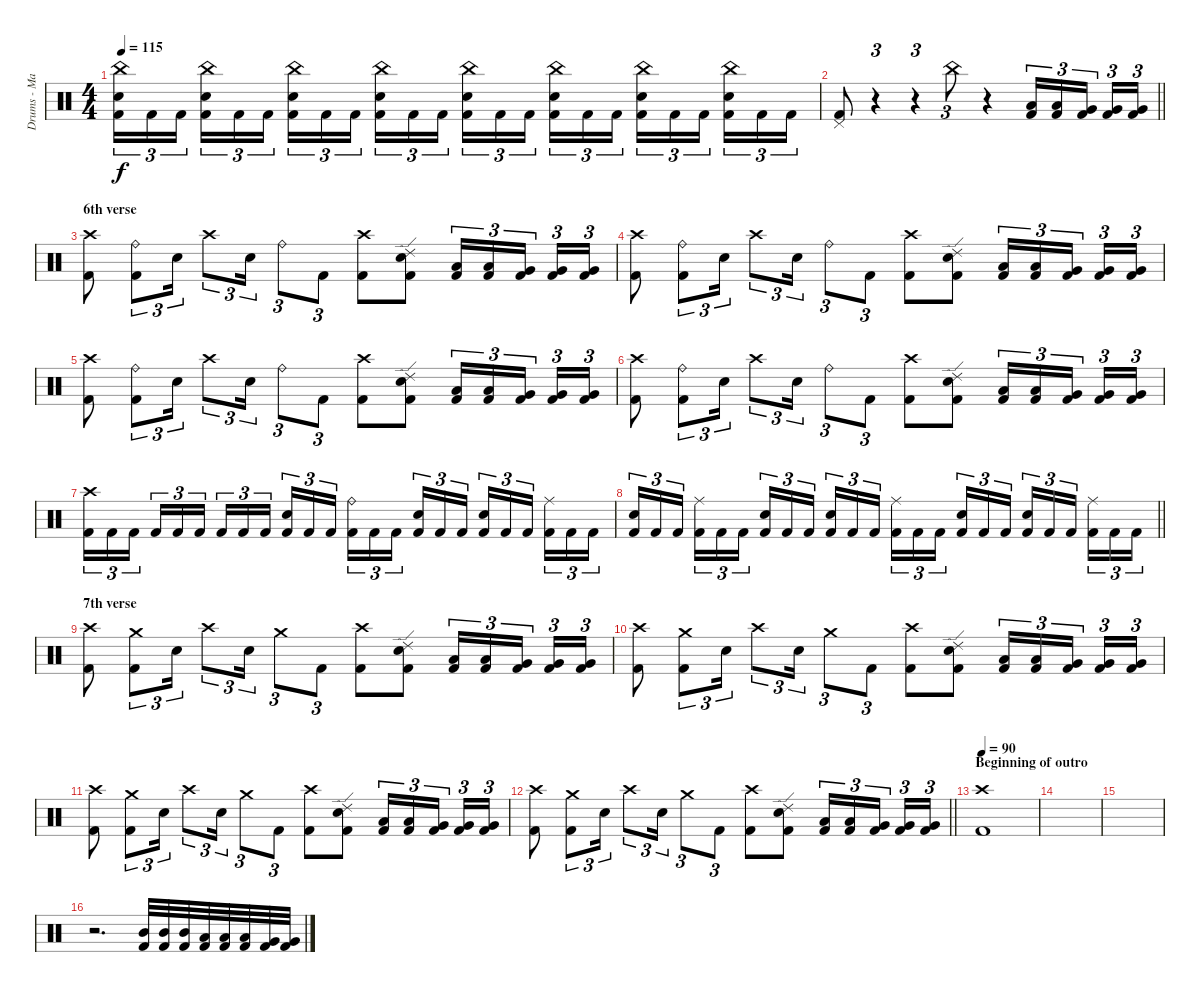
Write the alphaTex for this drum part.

\track ("Drums - Mario Duplantier" "Drums - Ma") {instrument percussion}
\staff {score}
\articulation defaults
\ts (4 4)
\tempo 115
\clef neutral
\ks c
("China (hit)" "Electric Snare (hit)" "Kick (hit) 2").16{tu (3 2) dy f} "Kick (hit) 2".16{tu (3 2)} "Kick (hit) 2".16{tu (3 2) beam splitsecondary} ("China (hit)" "Electric Snare (hit)" "Kick (hit) 2").16{tu (3 2)} "Kick (hit) 2".16{tu (3 2)} "Kick (hit) 2".16{tu (3 2)} ("China (hit)" "Electric Snare (hit)" "Kick (hit) 2").16{tu (3 2)} "Kick (hit) 2".16{tu (3 2)} "Kick (hit) 2".16{tu (3 2) beam splitsecondary} ("China (hit)" "Electric Snare (hit)" "Kick (hit) 2").16{tu (3 2)} "Kick (hit) 2".16{tu (3 2)} "Kick (hit) 2".16{tu (3 2)} ("China (hit)" "Electric Snare (hit)" "Kick (hit) 2").16{tu (3 2)} "Kick (hit) 2".16{tu (3 2)} "Kick (hit) 2".16{tu (3 2) beam splitsecondary} ("China (hit)" "Electric Snare (hit)" "Kick (hit) 2").16{tu (3 2)} "Kick (hit) 2".16{tu (3 2)} "Kick (hit) 2".16{tu (3 2)} ("China (hit)" "Electric Snare (hit)" "Kick (hit) 2").16{tu (3 2)} "Kick (hit) 2".16{tu (3 2)} "Kick (hit) 2".16{tu (3 2) beam splitsecondary} ("China (hit)" "Electric Snare (hit)" "Kick (hit) 2").16{tu (3 2)} "Kick (hit) 2".16{tu (3 2)} "Kick (hit) 2".16{tu (3 2)} |
\barLineRight lightlight
("Pedal Hi-Hat (hit)" "Kick (hit) 2").8 r.4{tu (3 2)} r.4{tu (3 2)} "China (hit)".8{tu (3 2)} r.4 ("Low Tom (hit)" "Kick (hit) 2").16{tu (3 2)} ("Low Tom (hit)" "Kick (hit) 2").16{tu (3 2)} ("Very Low Tom (hit)" "Kick (hit) 2").16{tu (3 2) beam splitsecondary} ("Very Low Tom (hit)" "Kick (hit) 2").16{tu (3 2)} ("Very Low Tom (hit)" "Kick (hit) 2").16{tu (3 2)} |
\section ("" "6th verse")
("Crash high (hit)" "Kick (hit) 2").8 ("Ride (bell)" "Kick (hit) 2").8{tu (3 2)} "Electric Snare (hit)".16{tu (3 2)} "Crash high (hit)".8{tu (3 2)} "Electric Snare (hit)".16{tu (3 2)} "Ride (bell)".8{tu (3 2)} "Kick (hit) 2".8{tu (3 2)} ("Crash high (hit)" "Kick (hit) 2").8 ("Ride (edge) 2" "Electric Snare (hit)" "Kick (hit) 2").8 ("Low Tom (hit)" "Kick (hit) 2").16{tu (3 2)} ("Low Tom (hit)" "Kick (hit) 2").16{tu (3 2)} ("Very Low Tom (hit)" "Kick (hit) 2").16{tu (3 2) beam splitsecondary} ("Very Low Tom (hit)" "Kick (hit) 2").16{tu (3 2)} ("Very Low Tom (hit)" "Kick (hit) 2").16{tu (3 2)} |
("Crash high (hit)" "Kick (hit) 2").8 ("Ride (bell)" "Kick (hit) 2").8{tu (3 2)} "Electric Snare (hit)".16{tu (3 2)} "Crash high (hit)".8{tu (3 2)} "Electric Snare (hit)".16{tu (3 2)} "Ride (bell)".8{tu (3 2)} "Kick (hit) 2".8{tu (3 2)} ("Crash high (hit)" "Kick (hit) 2").8 ("Ride (edge) 2" "Electric Snare (hit)" "Kick (hit) 2").8 ("Low Tom (hit)" "Kick (hit) 2").16{tu (3 2)} ("Low Tom (hit)" "Kick (hit) 2").16{tu (3 2)} ("Very Low Tom (hit)" "Kick (hit) 2").16{tu (3 2) beam splitsecondary} ("Very Low Tom (hit)" "Kick (hit) 2").16{tu (3 2)} ("Very Low Tom (hit)" "Kick (hit) 2").16{tu (3 2)} |
("Crash high (hit)" "Kick (hit) 2").8 ("Ride (bell)" "Kick (hit) 2").8{tu (3 2)} "Electric Snare (hit)".16{tu (3 2)} "Crash high (hit)".8{tu (3 2)} "Electric Snare (hit)".16{tu (3 2)} "Ride (bell)".8{tu (3 2)} "Kick (hit) 2".8{tu (3 2)} ("Crash high (hit)" "Kick (hit) 2").8 ("Ride (edge) 2" "Electric Snare (hit)" "Kick (hit) 2").8 ("Low Tom (hit)" "Kick (hit) 2").16{tu (3 2)} ("Low Tom (hit)" "Kick (hit) 2").16{tu (3 2)} ("Very Low Tom (hit)" "Kick (hit) 2").16{tu (3 2) beam splitsecondary} ("Very Low Tom (hit)" "Kick (hit) 2").16{tu (3 2)} ("Very Low Tom (hit)" "Kick (hit) 2").16{tu (3 2)} |
("Crash high (hit)" "Kick (hit) 2").8 ("Ride (bell)" "Kick (hit) 2").8{tu (3 2)} "Electric Snare (hit)".16{tu (3 2)} "Crash high (hit)".8{tu (3 2)} "Electric Snare (hit)".16{tu (3 2)} "Ride (bell)".8{tu (3 2)} "Kick (hit) 2".8{tu (3 2)} ("Crash high (hit)" "Kick (hit) 2").8 ("Ride (edge) 2" "Electric Snare (hit)" "Kick (hit) 2").8 ("Low Tom (hit)" "Kick (hit) 2").16{tu (3 2)} ("Low Tom (hit)" "Kick (hit) 2").16{tu (3 2)} ("Very Low Tom (hit)" "Kick (hit) 2").16{tu (3 2) beam splitsecondary} ("Very Low Tom (hit)" "Kick (hit) 2").16{tu (3 2)} ("Very Low Tom (hit)" "Kick (hit) 2").16{tu (3 2)} |
("Crash high (hit)" "Kick (hit) 2").16{tu (3 2)} "Kick (hit) 2".16{tu (3 2)} "Kick (hit) 2".16{tu (3 2) beam splitsecondary} "Kick (hit) 2".16{tu (3 2)} "Kick (hit) 2".16{tu (3 2)} "Kick (hit) 2".16{tu (3 2)} "Kick (hit) 2".16{tu (3 2)} "Kick (hit) 2".16{tu (3 2)} "Kick (hit) 2".16{tu (3 2) beam splitsecondary} ("Electric Snare (hit)" "Kick (hit) 2").16{tu (3 2)} "Kick (hit) 2".16{tu (3 2)} "Kick (hit) 2".16{tu (3 2)} ("Ride (bell)" "Kick (hit) 2").16{tu (3 2)} "Kick (hit) 2".16{tu (3 2)} "Kick (hit) 2".16{tu (3 2) beam splitsecondary} ("Electric Snare (hit)" "Kick (hit) 2").16{tu (3 2)} "Kick (hit) 2".16{tu (3 2)} "Kick (hit) 2".16{tu (3 2)} ("Electric Snare (hit)" "Kick (hit) 2").16{tu (3 2)} "Kick (hit) 2".16{tu (3 2)} "Kick (hit) 2".16{tu (3 2) beam splitsecondary} ("Ride (middle)" "Kick (hit) 2").16{tu (3 2)} "Kick (hit) 2".16{tu (3 2)} "Kick (hit) 2".16{tu (3 2)} |
\barLineRight lightlight
("Electric Snare (hit)" "Kick (hit) 2").16{tu (3 2)} "Kick (hit) 2".16{tu (3 2)} "Kick (hit) 2".16{tu (3 2) beam splitsecondary} ("Ride (middle)" "Kick (hit) 2").16{tu (3 2)} "Kick (hit) 2".16{tu (3 2)} "Kick (hit) 2".16{tu (3 2)} ("Electric Snare (hit)" "Kick (hit) 2").16{tu (3 2)} "Kick (hit) 2".16{tu (3 2)} "Kick (hit) 2".16{tu (3 2) beam splitsecondary} ("Electric Snare (hit)" "Kick (hit) 2").16{tu (3 2)} "Kick (hit) 2".16{tu (3 2)} "Kick (hit) 2".16{tu (3 2)} ("Ride (middle)" "Kick (hit) 2").16{tu (3 2)} "Kick (hit) 2".16{tu (3 2)} "Kick (hit) 2".16{tu (3 2) beam splitsecondary} ("Electric Snare (hit)" "Kick (hit) 2").16{tu (3 2)} "Kick (hit) 2".16{tu (3 2)} "Kick (hit) 2".16{tu (3 2)} ("Electric Snare (hit)" "Kick (hit) 2").16{tu (3 2)} "Kick (hit) 2".16{tu (3 2)} "Kick (hit) 2".16{tu (3 2) beam splitsecondary} ("Ride (middle)" "Kick (hit) 2").16{tu (3 2)} "Kick (hit) 2".16{tu (3 2)} "Kick (hit) 2".16{tu (3 2)} |
\section ("" "7th verse")
("Crash high (hit)" "Kick (hit) 2").8 ("Crash medium (hit)" "Kick (hit) 2").8{tu (3 2)} "Electric Snare (hit)".16{tu (3 2)} "Crash high (hit)".8{tu (3 2)} "Electric Snare (hit)".16{tu (3 2)} "Crash medium (hit)".8{tu (3 2)} "Kick (hit) 2".8{tu (3 2)} ("Crash high (hit)" "Kick (hit) 2").8 ("Ride (edge) 2" "Electric Snare (hit)" "Kick (hit) 2").8 ("Low Tom (hit)" "Kick (hit) 2").16{tu (3 2)} ("Low Tom (hit)" "Kick (hit) 2").16{tu (3 2)} ("Very Low Tom (hit)" "Kick (hit) 2").16{tu (3 2) beam splitsecondary} ("Very Low Tom (hit)" "Kick (hit) 2").16{tu (3 2)} ("Very Low Tom (hit)" "Kick (hit) 2").16{tu (3 2)} |
("Crash high (hit)" "Kick (hit) 2").8 ("Crash medium (hit)" "Kick (hit) 2").8{tu (3 2)} "Electric Snare (hit)".16{tu (3 2)} "Crash high (hit)".8{tu (3 2)} "Electric Snare (hit)".16{tu (3 2)} "Crash medium (hit)".8{tu (3 2)} "Kick (hit) 2".8{tu (3 2)} ("Crash high (hit)" "Kick (hit) 2").8 ("Ride (edge) 2" "Electric Snare (hit)" "Kick (hit) 2").8 ("Low Tom (hit)" "Kick (hit) 2").16{tu (3 2)} ("Low Tom (hit)" "Kick (hit) 2").16{tu (3 2)} ("Very Low Tom (hit)" "Kick (hit) 2").16{tu (3 2) beam splitsecondary} ("Very Low Tom (hit)" "Kick (hit) 2").16{tu (3 2)} ("Very Low Tom (hit)" "Kick (hit) 2").16{tu (3 2)} |
("Crash high (hit)" "Kick (hit) 2").8 ("Crash medium (hit)" "Kick (hit) 2").8{tu (3 2)} "Electric Snare (hit)".16{tu (3 2)} "Crash high (hit)".8{tu (3 2)} "Electric Snare (hit)".16{tu (3 2)} "Crash medium (hit)".8{tu (3 2)} "Kick (hit) 2".8{tu (3 2)} ("Crash high (hit)" "Kick (hit) 2").8 ("Ride (edge) 2" "Electric Snare (hit)" "Kick (hit) 2").8 ("Low Tom (hit)" "Kick (hit) 2").16{tu (3 2)} ("Low Tom (hit)" "Kick (hit) 2").16{tu (3 2)} ("Very Low Tom (hit)" "Kick (hit) 2").16{tu (3 2) beam splitsecondary} ("Very Low Tom (hit)" "Kick (hit) 2").16{tu (3 2)} ("Very Low Tom (hit)" "Kick (hit) 2").16{tu (3 2)} |
\barLineRight lightlight
("Crash high (hit)" "Kick (hit) 2").8 ("Crash medium (hit)" "Kick (hit) 2").8{tu (3 2)} "Electric Snare (hit)".16{tu (3 2)} "Crash high (hit)".8{tu (3 2)} "Electric Snare (hit)".16{tu (3 2)} "Crash medium (hit)".8{tu (3 2)} "Kick (hit) 2".8{tu (3 2)} ("Crash high (hit)" "Kick (hit) 2").8 ("Ride (edge) 2" "Electric Snare (hit)" "Kick (hit) 2").8 ("Low Tom (hit)" "Kick (hit) 2").16{tu (3 2)} ("Low Tom (hit)" "Kick (hit) 2").16{tu (3 2)} ("Very Low Tom (hit)" "Kick (hit) 2").16{tu (3 2) beam splitsecondary} ("Very Low Tom (hit)" "Kick (hit) 2").16{tu (3 2)} ("Very Low Tom (hit)" "Kick (hit) 2").16{tu (3 2)} |
\section ("" "Beginning of outro")
\tempo 90
("Crash high (hit)" "Kick (hit) 2").1 |
|
|
r.2{d} ("Mid Tom (hit)" "Kick (hit) 2").32 ("Mid Tom (hit)" "Kick (hit) 2").32 ("Mid Tom (hit)" "Kick (hit) 2").32 ("Low Tom (hit)" "Kick (hit) 2").32 ("Low Tom (hit)" "Kick (hit) 2").32 ("Low Tom (hit)" "Kick (hit) 2").32 ("Very Low Tom (hit)" "Kick (hit) 2").32 ("Very Low Tom (hit)" "Kick (hit) 2").32
